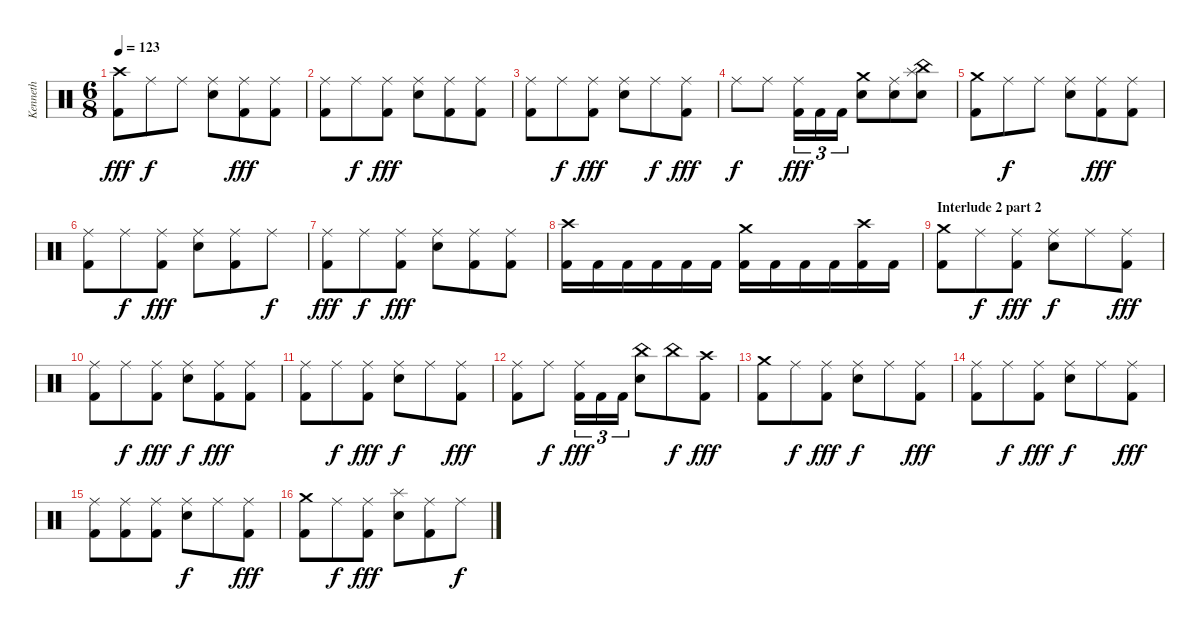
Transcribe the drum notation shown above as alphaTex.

\track ("Kenneth" "Kenneth") {instrument percussion}
\staff {score}
\articulation defaults
\ts (6 8)
\tempo 123
\clef neutral
\ks c
("Crash high (hit)" "Kick (hit) 2").8{dy fff} "Ride (middle)".8{dy f} "Ride (middle)".8 ("Ride (middle)" "Snare (hit) 2").8 ("Ride (middle)" "Kick (hit) 2").8{dy fff} ("Ride (middle)" "Kick (hit) 2").8 |
("Ride (middle)" "Kick (hit) 2").8 "Ride (middle)".8{dy f} ("Ride (middle)" "Kick (hit) 2").8{dy fff} ("Ride (middle)" "Snare (hit) 2").8 ("Ride (middle)" "Kick (hit) 2").8 ("Ride (middle)" "Kick (hit) 2").8 |
("Ride (middle)" "Kick (hit) 2").8 "Ride (middle)".8{dy f} ("Ride (middle)" "Kick (hit) 2").8{dy fff} ("Ride (middle)" "Snare (hit) 2").8 "Ride (middle)".8{dy f} ("Ride (middle)" "Kick (hit) 2").8{dy fff} |
"Ride (middle)".8{dy f} "Ride (middle)".8 ("Ride (middle)" "Kick (hit) 2").16{tu (3 2) dy fff} "Kick (hit) 2".16{tu (3 2)} "Kick (hit) 2".16{tu (3 2)} ("Crash medium (hit)" "Snare (hit) 2").8 ("Ride (middle)" "Snare (hit) 2").8 ("Splash (hit)" "China (hit)" "Snare (hit) 2").8 |
("Crash medium (hit)" "Kick (hit) 2").8 "Ride (middle)".8{dy f} "Ride (middle)".8 ("Ride (middle)" "Snare (hit) 2").8 ("Ride (middle)" "Kick (hit) 2").8{dy fff} ("Ride (middle)" "Kick (hit) 2").8 |
("Ride (middle)" "Kick (hit) 2").8 "Ride (middle)".8{dy f} ("Ride (middle)" "Kick (hit) 2").8{dy fff} ("Ride (middle)" "Snare (hit) 2").8 ("Ride (middle)" "Kick (hit) 2").8 "Ride (middle)".8{dy f} |
("Ride (middle)" "Kick (hit) 2").8{dy fff} "Ride (middle)".8{dy f} ("Ride (middle)" "Kick (hit) 2").8{dy fff} ("Ride (middle)" "Snare (hit) 2").8 ("Ride (middle)" "Kick (hit) 2").8 ("Ride (middle)" "Kick (hit) 2").8 |
("Crash high (hit)" "Kick (hit) 2").16 "Kick (hit) 2".16 "Kick (hit) 2".16 "Kick (hit) 2".16 "Kick (hit) 2".16 "Kick (hit) 2".16 ("Crash medium (hit)" "Kick (hit) 2").16 "Kick (hit) 2".16 "Kick (hit) 2".16 "Kick (hit) 2".16 ("Crash high (hit)" "Kick (hit) 2").16 "Kick (hit) 2".16 |
\section ("" "Interlude 2 part 2 ")
("Crash medium (hit)" "Kick (hit) 2").8 "Ride (middle)".8{dy f} ("Ride (middle)" "Kick (hit) 2").8{dy fff} ("Ride (middle)" "Snare (hit) 2").8{dy f} "Ride (middle)".8 ("Ride (middle)" "Kick (hit) 2").8{dy fff} |
("Ride (middle)" "Kick (hit) 2").8 "Ride (middle)".8{dy f} ("Ride (middle)" "Kick (hit) 2").8{dy fff} ("Ride (middle)" "Snare (hit) 2").8{dy f} ("Ride (middle)" "Kick (hit) 2").8{dy fff} ("Ride (middle)" "Kick (hit) 2").8 |
("Ride (middle)" "Kick (hit) 2").8 "Ride (middle)".8{dy f} ("Ride (middle)" "Kick (hit) 2").8{dy fff} ("Ride (middle)" "Snare (hit) 2").8{dy f} "Ride (middle)".8 ("Ride (middle)" "Kick (hit) 2").8{dy fff} |
("Ride (middle)" "Kick (hit) 2").8 "Ride (middle)".8{dy f} ("Ride (middle)" "Kick (hit) 2").16{tu (3 2) dy fff} "Kick (hit) 2".16{tu (3 2)} "Kick (hit) 2".16{tu (3 2)} ("China (hit)" "Snare (hit) 2").8 "China (hit)".8{dy f} ("Crash high (hit)" "Kick (hit) 2").8{dy fff} |
("Crash medium (hit)" "Kick (hit) 2").8 "Ride (middle)".8{dy f} ("Ride (middle)" "Kick (hit) 2").8{dy fff} ("Ride (middle)" "Snare (hit) 2").8{dy f} "Ride (middle)".8 ("Ride (middle)" "Kick (hit) 2").8{dy fff} |
("Ride (middle)" "Kick (hit) 2").8 "Ride (middle)".8{dy f} ("Ride (middle)" "Kick (hit) 2").8{dy fff} ("Ride (middle)" "Snare (hit) 2").8{dy f} "Ride (middle)".8 ("Ride (middle)" "Kick (hit) 2").8{dy fff} |
("Ride (middle)" "Kick (hit) 2").8 ("Ride (middle)" "Kick (hit) 2").8 ("Ride (middle)" "Kick (hit) 2").8 ("Ride (middle)" "Snare (hit) 2").8{dy f} "Ride (middle)".8 ("Ride (middle)" "Kick (hit) 2").8{dy fff} |
("Crash medium (hit)" "Kick (hit) 2").8 "Ride (middle)".8{dy f} ("Ride (middle)" "Kick (hit) 2").8{dy fff} ("Splash (hit)" "Snare (hit) 2").8 ("Ride (middle)" "Kick (hit) 2").8 "Ride (middle)".8{dy f}
